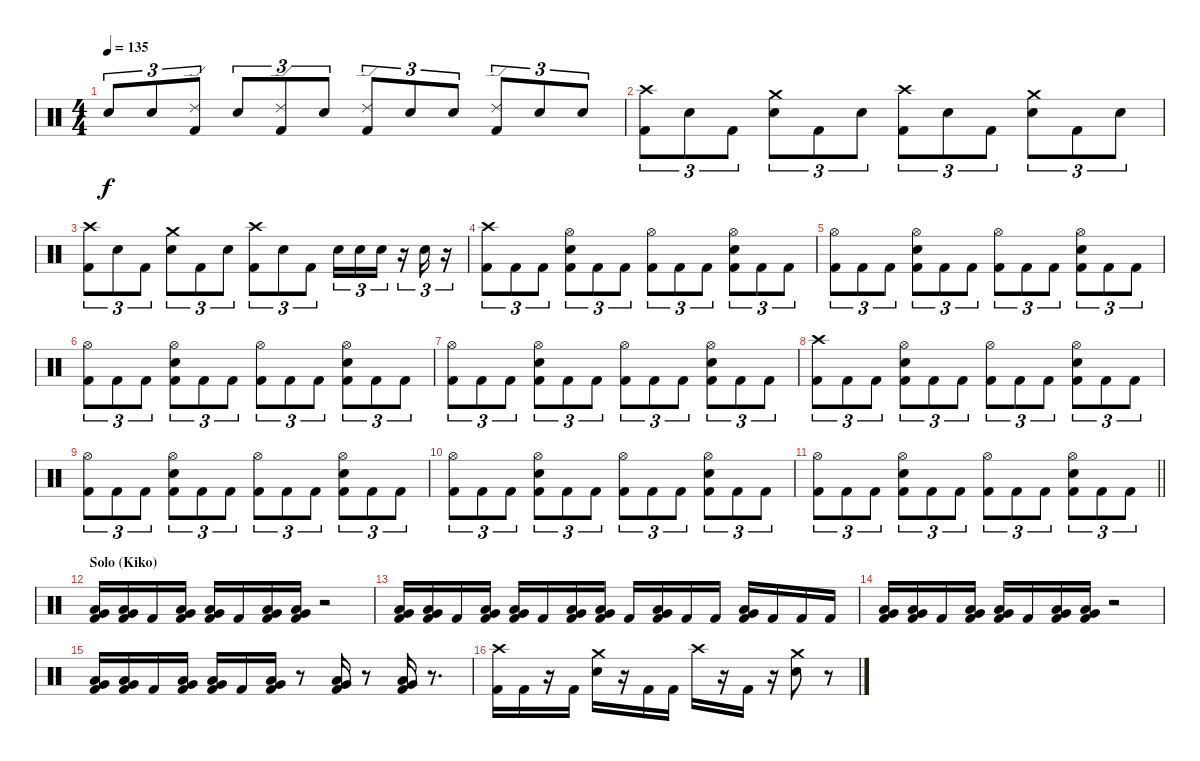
\track "" {instrument percussion}
\staff {score}
\articulation defaults
\ts (4 4)
\tempo 135
\clef neutral
\ks c "Electric Snare (hit)".8{tu (3 2) dy f} "Electric Snare (hit)".8{tu (3 2)}
("Ride (edge) 2" "Kick (hit) 2").8{tu (3 2)} "Electric Snare (hit)".8{tu (3 2)} ("Ride (edge) 2" "Kick (hit) 2").8{tu (3 2)} "Electric Snare (hit)".8{tu (3 2)} ("Ride (edge) 2" "Kick (hit) 2").8{tu (3 2)} "Electric Snare (hit)".8{tu (3 2)} "Electric Snare (hit)".8{tu (3 2)} ("Ride (edge) 2" "Kick (hit) 2").8{tu (3 2)} "Electric Snare (hit)".8{tu (3 2)} "Electric Snare (hit)".8{tu (3 2)} |
("Crash high (hit)" "Kick (hit) 2").8{tu (3 2)} "Electric Snare (hit)".8{tu (3 2)} "Kick (hit) 2".8{tu (3 2)} ("Crash medium (hit)" "Electric Snare (hit)").8{tu (3 2)} "Kick (hit) 2".8{tu (3 2)} "Electric Snare (hit)".8{tu (3 2)} ("Crash high (hit)" "Kick (hit) 2").8{tu (3 2)} "Electric Snare (hit)".8{tu (3 2)} "Kick (hit) 2".8{tu (3 2)} ("Crash medium (hit)" "Electric Snare (hit)").8{tu (3 2)} "Kick (hit) 2".8{tu (3 2)} "Electric Snare (hit)".8{tu (3 2)} |
("Crash high (hit)" "Kick (hit) 2").8{tu (3 2)} "Electric Snare (hit)".8{tu (3 2)} "Kick (hit) 2".8{tu (3 2)} ("Crash medium (hit)" "Electric Snare (hit)").8{tu (3 2)} "Kick (hit) 2".8{tu (3 2)} "Electric Snare (hit)".8{tu (3 2)} ("Crash high (hit)" "Kick (hit) 2").8{tu (3 2)} "Electric Snare (hit)".8{tu (3 2)} "Kick (hit) 2".8{tu (3 2)} "Electric Snare (hit)".16{tu (3 2)} "Electric Snare (hit)".16{tu (3 2)} "Electric Snare (hit)".16{tu (3 2)} r.16{tu (3 2)} "Electric Snare (hit)".16{tu (3 2)} r.16{tu (3 2)} |
("Crash high (hit)" "Kick (hit) 2").8{tu (3 2)} "Kick (hit) 2".8{tu (3 2)} "Kick (hit) 2".8{tu (3 2)} ("Hi-Hat (open)" "Electric Snare (hit)" "Kick (hit) 2").8{tu (3 2)} "Kick (hit) 2".8{tu (3 2)} "Kick (hit) 2".8{tu (3 2)} ("Hi-Hat (open)" "Kick (hit) 2").8{tu (3 2)} "Kick (hit) 2".8{tu (3 2)} "Kick (hit) 2".8{tu (3 2)} ("Hi-Hat (open)" "Electric Snare (hit)" "Kick (hit) 2").8{tu (3 2)} "Kick (hit) 2".8{tu (3 2)} "Kick (hit) 2".8{tu (3 2)} |
("Hi-Hat (open)" "Kick (hit) 2").8{tu (3 2)} "Kick (hit) 2".8{tu (3 2)} "Kick (hit) 2".8{tu (3 2)} ("Hi-Hat (open)" "Electric Snare (hit)" "Kick (hit) 2").8{tu (3 2)} "Kick (hit) 2".8{tu (3 2)} "Kick (hit) 2".8{tu (3 2)} ("Hi-Hat (open)" "Kick (hit) 2").8{tu (3 2)} "Kick (hit) 2".8{tu (3 2)} "Kick (hit) 2".8{tu (3 2)} ("Hi-Hat (open)" "Electric Snare (hit)" "Kick (hit) 2").8{tu (3 2)} "Kick (hit) 2".8{tu (3 2)} "Kick (hit) 2".8{tu (3 2)} |
("Hi-Hat (open)" "Kick (hit) 2").8{tu (3 2)} "Kick (hit) 2".8{tu (3 2)} "Kick (hit) 2".8{tu (3 2)} ("Hi-Hat (open)" "Electric Snare (hit)" "Kick (hit) 2").8{tu (3 2)} "Kick (hit) 2".8{tu (3 2)} "Kick (hit) 2".8{tu (3 2)} ("Hi-Hat (open)" "Kick (hit) 2").8{tu (3 2)} "Kick (hit) 2".8{tu (3 2)} "Kick (hit) 2".8{tu (3 2)} ("Hi-Hat (open)" "Electric Snare (hit)" "Kick (hit) 2").8{tu (3 2)} "Kick (hit) 2".8{tu (3 2)} "Kick (hit) 2".8{tu (3 2)} |
("Hi-Hat (open)" "Kick (hit) 2").8{tu (3 2)} "Kick (hit) 2".8{tu (3 2)} "Kick (hit) 2".8{tu (3 2)} ("Hi-Hat (open)" "Electric Snare (hit)" "Kick (hit) 2").8{tu (3 2)} "Kick (hit) 2".8{tu (3 2)} "Kick (hit) 2".8{tu (3 2)} ("Hi-Hat (open)" "Kick (hit) 2").8{tu (3 2)} "Kick (hit) 2".8{tu (3 2)} "Kick (hit) 2".8{tu (3 2)} ("Hi-Hat (open)" "Electric Snare (hit)" "Kick (hit) 2").8{tu (3 2)} "Kick (hit) 2".8{tu (3 2)} "Kick (hit) 2".8{tu (3 2)} |
("Crash high (hit)" "Kick (hit) 2").8{tu (3 2)} "Kick (hit) 2".8{tu (3 2)} "Kick (hit) 2".8{tu (3 2)} ("Hi-Hat (open)" "Electric Snare (hit)" "Kick (hit) 2").8{tu (3 2)} "Kick (hit) 2".8{tu (3 2)} "Kick (hit) 2".8{tu (3 2)} ("Hi-Hat (open)" "Kick (hit) 2").8{tu (3 2)} "Kick (hit) 2".8{tu (3 2)} "Kick (hit) 2".8{tu (3 2)} ("Hi-Hat (open)" "Electric Snare (hit)" "Kick (hit) 2").8{tu (3 2)} "Kick (hit) 2".8{tu (3 2)} "Kick (hit) 2".8{tu (3 2)} |
("Hi-Hat (open)" "Kick (hit) 2").8{tu (3 2)} "Kick (hit) 2".8{tu (3 2)} "Kick (hit) 2".8{tu (3 2)} ("Hi-Hat (open)" "Electric Snare (hit)" "Kick (hit) 2").8{tu (3 2)} "Kick (hit) 2".8{tu (3 2)} "Kick (hit) 2".8{tu (3 2)} ("Hi-Hat (open)" "Kick (hit) 2").8{tu (3 2)} "Kick (hit) 2".8{tu (3 2)} "Kick (hit) 2".8{tu (3 2)} ("Hi-Hat (open)" "Electric Snare (hit)" "Kick (hit) 2").8{tu (3 2)} "Kick (hit) 2".8{tu (3 2)} "Kick (hit) 2".8{tu (3 2)} |
("Hi-Hat (open)" "Kick (hit) 2").8{tu (3 2)} "Kick (hit) 2".8{tu (3 2)} "Kick (hit) 2".8{tu (3 2)} ("Hi-Hat (open)" "Electric Snare (hit)" "Kick (hit) 2").8{tu (3 2)} "Kick (hit) 2".8{tu (3 2)} "Kick (hit) 2".8{tu (3 2)} ("Hi-Hat (open)" "Kick (hit) 2").8{tu (3 2)} "Kick (hit) 2".8{tu (3 2)} "Kick (hit) 2".8{tu (3 2)} ("Hi-Hat (open)" "Electric Snare (hit)" "Kick (hit) 2").8{tu (3 2)} "Kick (hit) 2".8{tu (3 2)} "Kick (hit) 2".8{tu (3 2)} |
\barLineRight lightlight
("Hi-Hat (open)" "Kick (hit) 2").8{tu (3 2)} "Kick (hit) 2".8{tu (3 2)} "Kick (hit) 2".8{tu (3 2)} ("Hi-Hat (open)" "Electric Snare (hit)" "Kick (hit) 2").8{tu (3 2)} "Kick (hit) 2".8{tu (3 2)} "Kick (hit) 2".8{tu (3 2)} ("Hi-Hat (open)" "Kick (hit) 2").8{tu (3 2)} "Kick (hit) 2".8{tu (3 2)} "Kick (hit) 2".8{tu (3 2)} ("Hi-Hat (open)" "Electric Snare (hit)" "Kick (hit) 2").8{tu (3 2)} "Kick (hit) 2".8{tu (3 2)} "Kick (hit) 2".8{tu (3 2)} |
\section ("" "Solo (Kiko)")
("Very Low Tom (hit)" "Low Floor Tom (hit)" "Kick (hit) 2").16 ("Very Low Tom (hit)" "Low Floor Tom (hit)" "Kick (hit) 2").16 "Kick (hit) 2".16 ("Very Low Tom (hit)" "Low Floor Tom (hit)" "Kick (hit) 2").16 ("Very Low Tom (hit)" "Low Floor Tom (hit)" "Kick (hit) 2").16 "Kick (hit) 2".16 ("Very Low Tom (hit)" "Low Floor Tom (hit)" "Kick (hit) 2").16 ("Very Low Tom (hit)" "Low Floor Tom (hit)" "Kick (hit) 2").16 r.2 |
("Very Low Tom (hit)" "Low Floor Tom (hit)" "Kick (hit) 2").16 ("Very Low Tom (hit)" "Low Floor Tom (hit)" "Kick (hit) 2").16 "Kick (hit) 2".16 ("Very Low Tom (hit)" "Low Floor Tom (hit)" "Kick (hit) 2").16 ("Very Low Tom (hit)" "Low Floor Tom (hit)" "Kick (hit) 2").16 "Kick (hit) 2".16 ("Very Low Tom (hit)" "Low Floor Tom (hit)" "Kick (hit) 2").16 ("Very Low Tom (hit)" "Low Floor Tom (hit)" "Kick (hit) 2").16 "Kick (hit) 2".16 ("Very Low Tom (hit)" "Low Floor Tom (hit)" "Kick (hit) 2").16 "Kick (hit) 2".16 "Kick (hit) 2".16 ("Very Low Tom (hit)" "Low Floor Tom (hit)" "Kick (hit) 2").16 "Kick (hit) 2".16 "Kick (hit) 2".16 "Kick (hit) 2".16 |
("Very Low Tom (hit)" "Low Floor Tom (hit)" "Kick (hit) 2").16 ("Very Low Tom (hit)" "Low Floor Tom (hit)" "Kick (hit) 2").16 "Kick (hit) 2".16 ("Very Low Tom (hit)" "Low Floor Tom (hit)" "Kick (hit) 2").16 ("Very Low Tom (hit)" "Low Floor Tom (hit)" "Kick (hit) 2").16 "Kick (hit) 2".16 ("Very Low Tom (hit)" "Low Floor Tom (hit)" "Kick (hit) 2").16 ("Very Low Tom (hit)" "Low Floor Tom (hit)" "Kick (hit) 2").16 r.2 |
("Very Low Tom (hit)" "Low Floor Tom (hit)" "Kick (hit) 2").16 ("Very Low Tom (hit)" "Low Floor Tom (hit)" "Kick (hit) 2").16 "Kick (hit) 2".16 ("Very Low Tom (hit)" "Low Floor Tom (hit)" "Kick (hit) 2").16 ("Very Low Tom (hit)" "Low Floor Tom (hit)" "Kick (hit) 2").16 "Kick (hit) 2".16 ("Very Low Tom (hit)" "Low Floor Tom (hit)" "Kick (hit) 2").16 r.8 ("Very Low Tom (hit)" "Low Floor Tom (hit)" "Kick (hit) 2").16 r.8 ("Very Low Tom (hit)" "Low Floor Tom (hit)" "Kick (hit) 2").16 r.8{d} |
("Crash high (hit)" "Kick (hit) 2").16 "Kick (hit) 2".16 r.16 "Kick (hit) 2".16 ("Crash medium (hit)" "Electric Snare (hit)").16 r.16 "Kick (hit) 2".16 "Kick (hit) 2".16 "Crash high (hit)".16 r.16 "Kick (hit) 2".16 r.16 ("Crash medium (hit)" "Electric Snare (hit)").8 r.8
